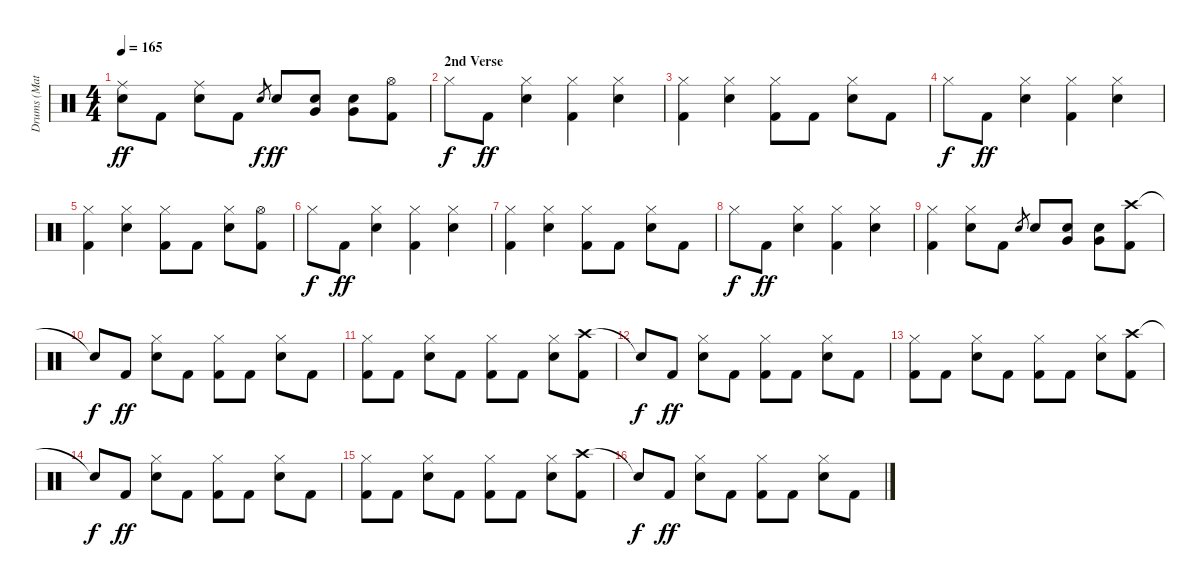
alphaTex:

\track ("Drums (Matt)" "Drums (Mat") {instrument percussion}
\staff {score}
\articulation defaults
\ts (4 4)
\tempo 165
\clef neutral
\ks c
("Ride (middle)" "Snare (hit) 2").8{dy ff} "Kick (hit) 2".8 ("Ride (middle)" "Snare (hit) 2").8 "Kick (hit) 2".8 "Snare (hit) 2".8{gr dy f} "Snare (hit) 2".8{dy ff} ("Very Low Tom (hit)" "Snare (hit) 2").8 ("Very Low Tom (hit)" "Snare (hit) 2").8 ("Hi-Hat (open)" "Kick (hit) 2").8 |
\section ("" "2nd Verse")
"Hi-Hat (closed)".8{dy f} "Kick (hit) 2".8{dy ff} ("Hi-Hat (closed)" "Snare (hit) 2").4 ("Hi-Hat (closed)" "Kick (hit) 2").4 ("Hi-Hat (closed)" "Snare (hit) 2").4 |
("Hi-Hat (closed)" "Kick (hit) 2").4 ("Hi-Hat (closed)" "Snare (hit) 2").4 ("Hi-Hat (closed)" "Kick (hit) 2").8 "Kick (hit) 2".8 ("Hi-Hat (closed)" "Snare (hit) 2").8 "Kick (hit) 2".8 |
"Hi-Hat (closed)".8{dy f} "Kick (hit) 2".8{dy ff} ("Hi-Hat (closed)" "Snare (hit) 2").4 ("Hi-Hat (closed)" "Kick (hit) 2").4 ("Hi-Hat (closed)" "Snare (hit) 2").4 |
("Hi-Hat (closed)" "Kick (hit) 2").4 ("Hi-Hat (closed)" "Snare (hit) 2").4 ("Hi-Hat (closed)" "Kick (hit) 2").8 "Kick (hit) 2".8 ("Hi-Hat (closed)" "Snare (hit) 2").8 ("Hi-Hat (open)" "Kick (hit) 2").8 |
"Hi-Hat (closed)".8{dy f} "Kick (hit) 2".8{dy ff} ("Hi-Hat (closed)" "Snare (hit) 2").4 ("Hi-Hat (closed)" "Kick (hit) 2").4 ("Hi-Hat (closed)" "Snare (hit) 2").4 |
("Hi-Hat (closed)" "Kick (hit) 2").4 ("Hi-Hat (closed)" "Snare (hit) 2").4 ("Hi-Hat (closed)" "Kick (hit) 2").8 "Kick (hit) 2".8 ("Hi-Hat (closed)" "Snare (hit) 2").8 "Kick (hit) 2".8 |
"Hi-Hat (closed)".8{dy f} "Kick (hit) 2".8{dy ff} ("Hi-Hat (closed)" "Snare (hit) 2").4 ("Hi-Hat (closed)" "Kick (hit) 2").4 ("Hi-Hat (closed)" "Snare (hit) 2").4 |
("Hi-Hat (closed)" "Kick (hit) 2").4 ("Hi-Hat (closed)" "Snare (hit) 2").8 "Kick (hit) 2".8 "Snare (hit) 2".8{gr} "Snare (hit) 2".8 ("Very Low Tom (hit)" "Snare (hit) 2").8 ("Very Low Tom (hit)" "Snare (hit) 2").8 ("Crash high (hit)" "Kick (hit) 2").8 |
"Snare (hit)"{t}.8{dy f} "Kick (hit) 2".8{dy ff} ("Hi-Hat (closed)" "Snare (hit) 2").8 "Kick (hit) 2".8 ("Hi-Hat (closed)" "Kick (hit) 2").8 "Kick (hit) 2".8 ("Hi-Hat (closed)" "Snare (hit) 2").8 "Kick (hit) 2".8 |
("Hi-Hat (closed)" "Kick (hit) 2").8 "Kick (hit) 2".8 ("Hi-Hat (closed)" "Snare (hit) 2").8 "Kick (hit) 2".8 ("Hi-Hat (closed)" "Kick (hit) 2").8 "Kick (hit) 2".8 ("Hi-Hat (closed)" "Snare (hit) 2").8 ("Crash high (hit)" "Kick (hit) 2").8 |
"Snare (hit)"{t}.8{dy f} "Kick (hit) 2".8{dy ff} ("Hi-Hat (closed)" "Snare (hit) 2").8 "Kick (hit) 2".8 ("Hi-Hat (closed)" "Kick (hit) 2").8 "Kick (hit) 2".8 ("Hi-Hat (closed)" "Snare (hit) 2").8 "Kick (hit) 2".8 |
("Hi-Hat (closed)" "Kick (hit) 2").8 "Kick (hit) 2".8 ("Hi-Hat (closed)" "Snare (hit) 2").8 "Kick (hit) 2".8 ("Hi-Hat (closed)" "Kick (hit) 2").8 "Kick (hit) 2".8 ("Hi-Hat (closed)" "Snare (hit) 2").8 ("Crash high (hit)" "Kick (hit) 2").8 |
"Snare (hit)"{t}.8{dy f} "Kick (hit) 2".8{dy ff} ("Hi-Hat (closed)" "Snare (hit) 2").8 "Kick (hit) 2".8 ("Hi-Hat (closed)" "Kick (hit) 2").8 "Kick (hit) 2".8 ("Hi-Hat (closed)" "Snare (hit) 2").8 "Kick (hit) 2".8 |
("Hi-Hat (closed)" "Kick (hit) 2").8 "Kick (hit) 2".8 ("Hi-Hat (closed)" "Snare (hit) 2").8 "Kick (hit) 2".8 ("Hi-Hat (closed)" "Kick (hit) 2").8 "Kick (hit) 2".8 ("Hi-Hat (closed)" "Snare (hit) 2").8 ("Crash high (hit)" "Kick (hit) 2").8 |
"Snare (hit)"{t}.8{dy f} "Kick (hit) 2".8{dy ff} ("Hi-Hat (closed)" "Snare (hit) 2").8 "Kick (hit) 2".8 ("Hi-Hat (closed)" "Kick (hit) 2").8 "Kick (hit) 2".8 ("Hi-Hat (closed)" "Snare (hit) 2").8 "Kick (hit) 2".8
